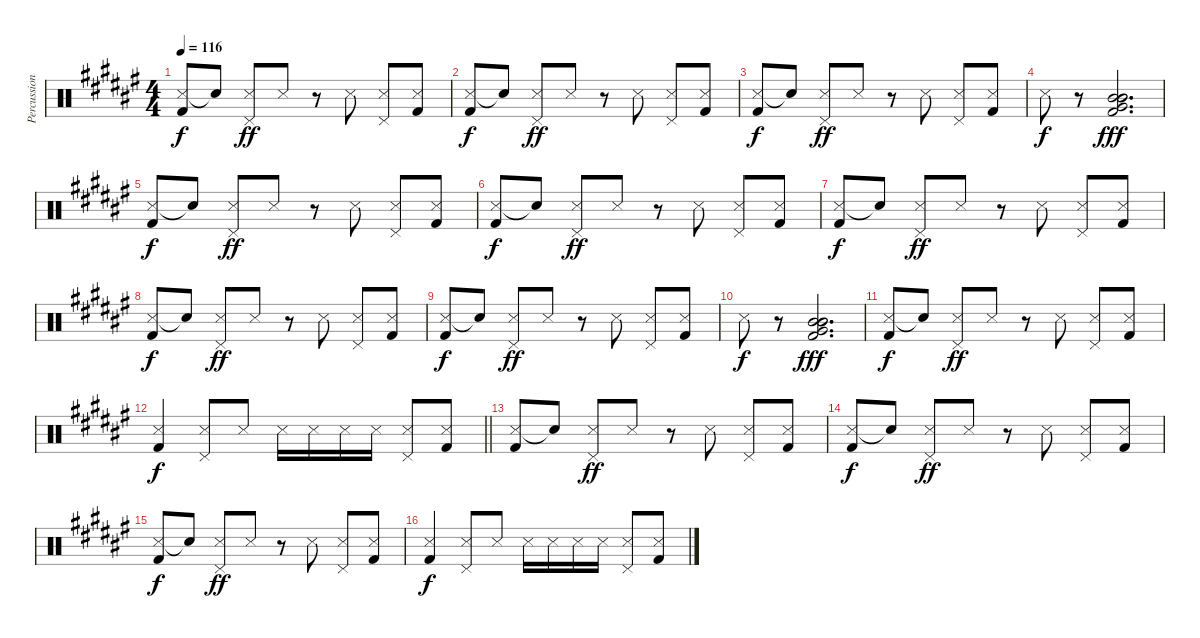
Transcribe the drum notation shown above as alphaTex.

\track ("Percussion" "Percussion") {instrument percussion}
\staff {score}
\articulation defaults
\ts (4 4)
\tempo 116
\clef neutral
\ks f#
("Snare (side stick) 3" "Kick (hit) 2").8{dy f} "Snare (hit)"{t}.8 ("Snare (side stick) 3" "Pedal Hi-Hat (hit)").8{dy ff} "Snare (side stick) 3".8 r.8 "Snare (side stick) 3".8 ("Snare (side stick) 3" "Pedal Hi-Hat (hit)").8 ("Snare (side stick) 3" "Kick (hit) 2").8 |
("Snare (side stick) 3" "Kick (hit) 2").8{dy f} "Snare (hit)"{t}.8 ("Snare (side stick) 3" "Pedal Hi-Hat (hit)").8{dy ff} "Snare (side stick) 3".8 r.8 "Snare (side stick) 3".8 ("Snare (side stick) 3" "Pedal Hi-Hat (hit)").8 ("Snare (side stick) 3" "Kick (hit) 2").8 |
("Snare (side stick) 3" "Kick (hit) 2").8{dy f} "Snare (hit)"{t}.8 ("Snare (side stick) 3" "Pedal Hi-Hat (hit)").8{dy ff} "Snare (side stick) 3".8 r.8 "Snare (side stick) 3".8 ("Snare (side stick) 3" "Pedal Hi-Hat (hit)").8 ("Snare (side stick) 3" "Kick (hit) 2").8 |
"Snare (side stick) 3".8{dy f} r.8 ("Mid Tom (hit)" "Mid Tom (hit)" "Mid Tom (hit)" "Very Low Tom (hit)" "Kick (hit) 2").2{d dy fff} |
("Snare (side stick) 3" "Kick (hit) 2").8{dy f} "Snare (hit)"{t}.8 ("Snare (side stick) 3" "Pedal Hi-Hat (hit)").8{dy ff} "Snare (side stick) 3".8 r.8 "Snare (side stick) 3".8 ("Snare (side stick) 3" "Pedal Hi-Hat (hit)").8 ("Snare (side stick) 3" "Kick (hit) 2").8 |
("Snare (side stick) 3" "Kick (hit) 2").8{dy f} "Snare (hit)"{t}.8 ("Snare (side stick) 3" "Pedal Hi-Hat (hit)").8{dy ff} "Snare (side stick) 3".8 r.8 "Snare (side stick) 3".8 ("Snare (side stick) 3" "Pedal Hi-Hat (hit)").8 ("Snare (side stick) 3" "Kick (hit) 2").8 |
("Snare (side stick) 3" "Kick (hit) 2").8{dy f} "Snare (hit)"{t}.8 ("Snare (side stick) 3" "Pedal Hi-Hat (hit)").8{dy ff} "Snare (side stick) 3".8 r.8 "Snare (side stick) 3".8 ("Snare (side stick) 3" "Pedal Hi-Hat (hit)").8 ("Snare (side stick) 3" "Kick (hit) 2").8 |
("Snare (side stick) 3" "Kick (hit) 2").8{dy f} "Snare (hit)"{t}.8 ("Snare (side stick) 3" "Pedal Hi-Hat (hit)").8{dy ff} "Snare (side stick) 3".8 r.8 "Snare (side stick) 3".8 ("Snare (side stick) 3" "Pedal Hi-Hat (hit)").8 ("Snare (side stick) 3" "Kick (hit) 2").8 |
("Snare (side stick) 3" "Kick (hit) 2").8{dy f} "Snare (hit)"{t}.8 ("Snare (side stick) 3" "Pedal Hi-Hat (hit)").8{dy ff} "Snare (side stick) 3".8 r.8 "Snare (side stick) 3".8 ("Snare (side stick) 3" "Pedal Hi-Hat (hit)").8 ("Snare (side stick) 3" "Kick (hit) 2").8 |
"Snare (side stick) 3".8{dy f} r.8 ("Mid Tom (hit)" "Mid Tom (hit)" "Mid Tom (hit)" "Very Low Tom (hit)" "Kick (hit) 2").2{d dy fff} |
("Snare (side stick) 3" "Kick (hit) 2").8{dy f} "Snare (hit)"{t}.8 ("Snare (side stick) 3" "Pedal Hi-Hat (hit)").8{dy ff} "Snare (side stick) 3".8 r.8 "Snare (side stick) 3".8 ("Snare (side stick) 3" "Pedal Hi-Hat (hit)").8 ("Snare (side stick) 3" "Kick (hit) 2").8 |
\barLineRight lightlight
("Snare (side stick) 3" "Kick (hit) 2").4{dy f} ("Snare (side stick) 3" "Pedal Hi-Hat (hit)").8 "Snare (side stick) 3".8 "Snare (side stick) 3".16 "Snare (side stick) 3".16 "Snare (side stick) 3".16 "Snare (side stick) 3".16 ("Snare (side stick) 3" "Pedal Hi-Hat (hit)").8 ("Snare (side stick) 3" "Kick (hit) 2").8 |
("Snare (side stick) 3" "Kick (hit) 2").8 "Snare (hit)"{t}.8 ("Snare (side stick) 3" "Pedal Hi-Hat (hit)").8{dy ff} "Snare (side stick) 3".8 r.8 "Snare (side stick) 3".8 ("Snare (side stick) 3" "Pedal Hi-Hat (hit)").8 ("Snare (side stick) 3" "Kick (hit) 2").8 |
("Snare (side stick) 3" "Kick (hit) 2").8{dy f} "Snare (hit)"{t}.8 ("Snare (side stick) 3" "Pedal Hi-Hat (hit)").8{dy ff} "Snare (side stick) 3".8 r.8 "Snare (side stick) 3".8 ("Snare (side stick) 3" "Pedal Hi-Hat (hit)").8 ("Snare (side stick) 3" "Kick (hit) 2").8 |
("Snare (side stick) 3" "Kick (hit) 2").8{dy f} "Snare (hit)"{t}.8 ("Snare (side stick) 3" "Pedal Hi-Hat (hit)").8{dy ff} "Snare (side stick) 3".8 r.8 "Snare (side stick) 3".8 ("Snare (side stick) 3" "Pedal Hi-Hat (hit)").8 ("Snare (side stick) 3" "Kick (hit) 2").8 |
("Snare (side stick) 3" "Kick (hit) 2").4{dy f} ("Snare (side stick) 3" "Pedal Hi-Hat (hit)").8 "Snare (side stick) 3".8 "Snare (side stick) 3".16 "Snare (side stick) 3".16 "Snare (side stick) 3".16 "Snare (side stick) 3".16 ("Snare (side stick) 3" "Pedal Hi-Hat (hit)").8 ("Snare (side stick) 3" "Kick (hit) 2").8
